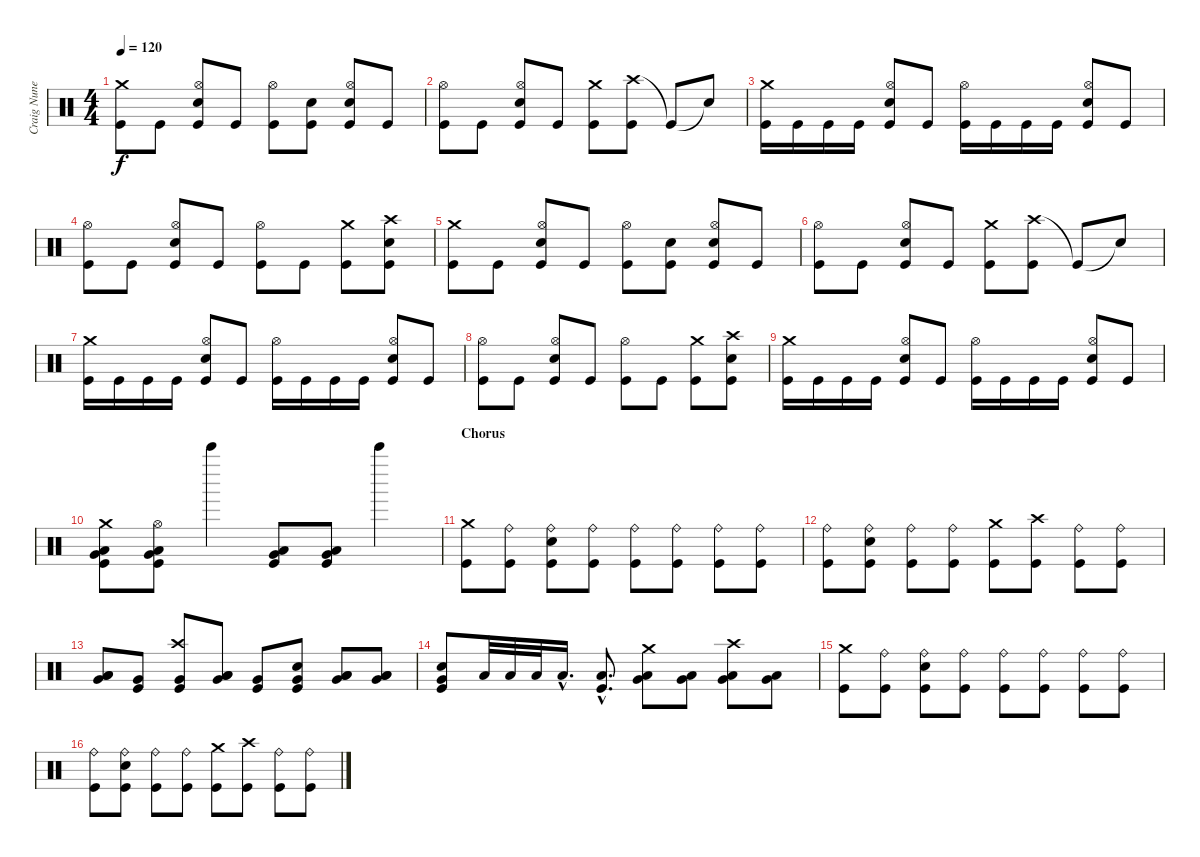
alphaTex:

\track ("Craig Nunenmacher" "Craig Nune") {instrument percussion}
\staff {score}
\articulation defaults
\ts (4 4)
\tempo 120
\clef neutral
\ks c
("Crash medium (hit)" "Kick (hit)").8{dy f} "Kick (hit)".8 ("Hi-Hat (open)" "Snare (hit) 2" "Kick (hit)").8 "Kick (hit)".8 ("Hi-Hat (open)" "Kick (hit)").8 ("Snare (hit) 2" "Kick (hit)").8 ("Hi-Hat (open)" "Snare (hit) 2" "Kick (hit)").8 "Kick (hit)".8 |
("Hi-Hat (open)" "Kick (hit)").8 "Kick (hit)".8 ("Hi-Hat (open)" "Snare (hit) 2" "Kick (hit)").8 "Kick (hit)".8 ("Crash medium (hit)" "Kick (hit)").8 ("Crash high (hit)" "Kick (hit)").8 "Kick (hit)"{t}.8 "Snare (hit)"{t}.8 |
("Crash medium (hit)" "Kick (hit)").16 "Kick (hit)".16 "Kick (hit)".16 "Kick (hit)".16 ("Hi-Hat (open)" "Snare (hit) 2" "Kick (hit)").8 "Kick (hit)".8 ("Hi-Hat (open)" "Kick (hit)").16 "Kick (hit)".16 "Kick (hit)".16 "Kick (hit)".16 ("Hi-Hat (open)" "Snare (hit) 2" "Kick (hit)").8 "Kick (hit)".8 |
("Hi-Hat (open)" "Kick (hit)").8 "Kick (hit)".8 ("Hi-Hat (open)" "Snare (hit) 2" "Kick (hit)").8 "Kick (hit)".8 ("Hi-Hat (open)" "Kick (hit)").8 "Kick (hit)".8 ("Crash medium (hit)" "Kick (hit)").8 ("Crash high (hit)" "Snare (hit) 2" "Kick (hit)").8 |
("Crash medium (hit)" "Kick (hit)").8 "Kick (hit)".8 ("Hi-Hat (open)" "Snare (hit) 2" "Kick (hit)").8 "Kick (hit)".8 ("Hi-Hat (open)" "Kick (hit)").8 ("Snare (hit) 2" "Kick (hit)").8 ("Hi-Hat (open)" "Snare (hit) 2" "Kick (hit)").8 "Kick (hit)".8 |
("Hi-Hat (open)" "Kick (hit)").8 "Kick (hit)".8 ("Hi-Hat (open)" "Snare (hit) 2" "Kick (hit)").8 "Kick (hit)".8 ("Crash medium (hit)" "Kick (hit)").8 ("Crash high (hit)" "Kick (hit)").8 "Kick (hit)"{t}.8 "Snare (hit)"{t}.8 |
("Crash medium (hit)" "Kick (hit)").16 "Kick (hit)".16 "Kick (hit)".16 "Kick (hit)".16 ("Hi-Hat (open)" "Snare (hit) 2" "Kick (hit)").8 "Kick (hit)".8 ("Hi-Hat (open)" "Kick (hit)").16 "Kick (hit)".16 "Kick (hit)".16 "Kick (hit)".16 ("Hi-Hat (open)" "Snare (hit) 2" "Kick (hit)").8 "Kick (hit)".8 |
("Hi-Hat (open)" "Kick (hit)").8 "Kick (hit)".8 ("Hi-Hat (open)" "Snare (hit) 2" "Kick (hit)").8 "Kick (hit)".8 ("Hi-Hat (open)" "Kick (hit)").8 "Kick (hit)".8 ("Crash medium (hit)" "Kick (hit)").8 ("Crash high (hit)" "Snare (hit) 2" "Kick (hit)").8 |
("Crash medium (hit)" "Kick (hit)").16 "Kick (hit)".16 "Kick (hit)".16 "Kick (hit)".16 ("Hi-Hat (open)" "Snare (hit) 2" "Kick (hit)").8 "Kick (hit)".8 ("Hi-Hat (open)" "Kick (hit)").16 "Kick (hit)".16 "Kick (hit)".16 "Kick (hit)".16 ("Hi-Hat (open)" "Snare (hit) 2" "Kick (hit)").8 "Kick (hit)".8 |
("Crash medium (hit)" "Low Tom (hit)" "Very Low Tom (hit)" "Kick (hit)").8 ("Hi-Hat (open)" "Low Tom (hit)" "Very Low Tom (hit)" "Kick (hit)").8 "Bell Tree (hit)".4 ("Low Tom (hit)" "Very Low Tom (hit)" "Kick (hit)").8 ("Low Tom (hit)" "Very Low Tom (hit)" "Kick (hit)").8 "Bell Tree (hit)".4 |
\section ("" "Chorus")
("Crash medium (hit)" "Kick (hit)").8 ("Ride (bell)" "Kick (hit)").8 ("Ride (bell)" "Snare (hit) 2" "Kick (hit)").8 ("Ride (bell)" "Kick (hit)").8 ("Ride (bell)" "Kick (hit)").8 ("Ride (bell)" "Kick (hit)").8 ("Ride (bell)" "Kick (hit)").8 ("Ride (bell)" "Kick (hit)").8 |
("Ride (bell)" "Kick (hit)").8 ("Ride (bell)" "Snare (hit) 2" "Kick (hit)").8 ("Ride (bell)" "Kick (hit)").8 ("Ride (bell)" "Kick (hit)").8 ("Crash medium (hit)" "Kick (hit)").8 ("Crash high (hit)" "Kick (hit)").8 ("Ride (bell)" "Kick (hit)").8 ("Ride (bell)" "Kick (hit)").8 |
("Low Tom (hit)" "Low Tom (hit)" "Very Low Tom (hit)").8{bd 120} ("Very Low Tom (hit)" "Kick (hit)").8 ("Crash high (hit)" "Very Low Tom (hit)" "Kick (hit)").8 ("Low Tom (hit)" "Low Tom (hit)" "Very Low Tom (hit)").8{bd 120} ("Very Low Tom (hit)" "Kick (hit)").8 ("Snare (hit) 2" "Very Low Tom (hit)" "Kick (hit)").8 ("Low Tom (hit)" "Low Tom (hit)" "Very Low Tom (hit)").8{bd 120} ("Low Tom (hit)" "Low Tom (hit)" "Very Low Tom (hit)").8{bd 120} |
("Snare (hit) 2" "Very Low Tom (hit)" "Kick (hit)").8 "Low Tom (hit)".32 "Low Tom (hit)".32 "Low Tom (hit)".32 "Low Tom (hit)"{hac}.16{d} ("Low Tom (hit)"{hac} "Kick (hit)"{hac}).8{d} ("Crash medium (hit)" "Low Tom (hit)" "Very Low Tom (hit)").8 ("Low Tom (hit)" "Very Low Tom (hit)").8 ("Crash high (hit)" "Low Tom (hit)" "Very Low Tom (hit)").8 ("Low Tom (hit)" "Very Low Tom (hit)").8 |
("Crash medium (hit)" "Kick (hit)").8 ("Ride (bell)" "Kick (hit)").8 ("Ride (bell)" "Snare (hit) 2" "Kick (hit)").8 ("Ride (bell)" "Kick (hit)").8 ("Ride (bell)" "Kick (hit)").8 ("Ride (bell)" "Kick (hit)").8 ("Ride (bell)" "Kick (hit)").8 ("Ride (bell)" "Kick (hit)").8 |
("Ride (bell)" "Kick (hit)").8 ("Ride (bell)" "Snare (hit) 2" "Kick (hit)").8 ("Ride (bell)" "Kick (hit)").8 ("Ride (bell)" "Kick (hit)").8 ("Crash medium (hit)" "Kick (hit)").8 ("Crash high (hit)" "Kick (hit)").8 ("Ride (bell)" "Kick (hit)").8 ("Ride (bell)" "Kick (hit)").8
